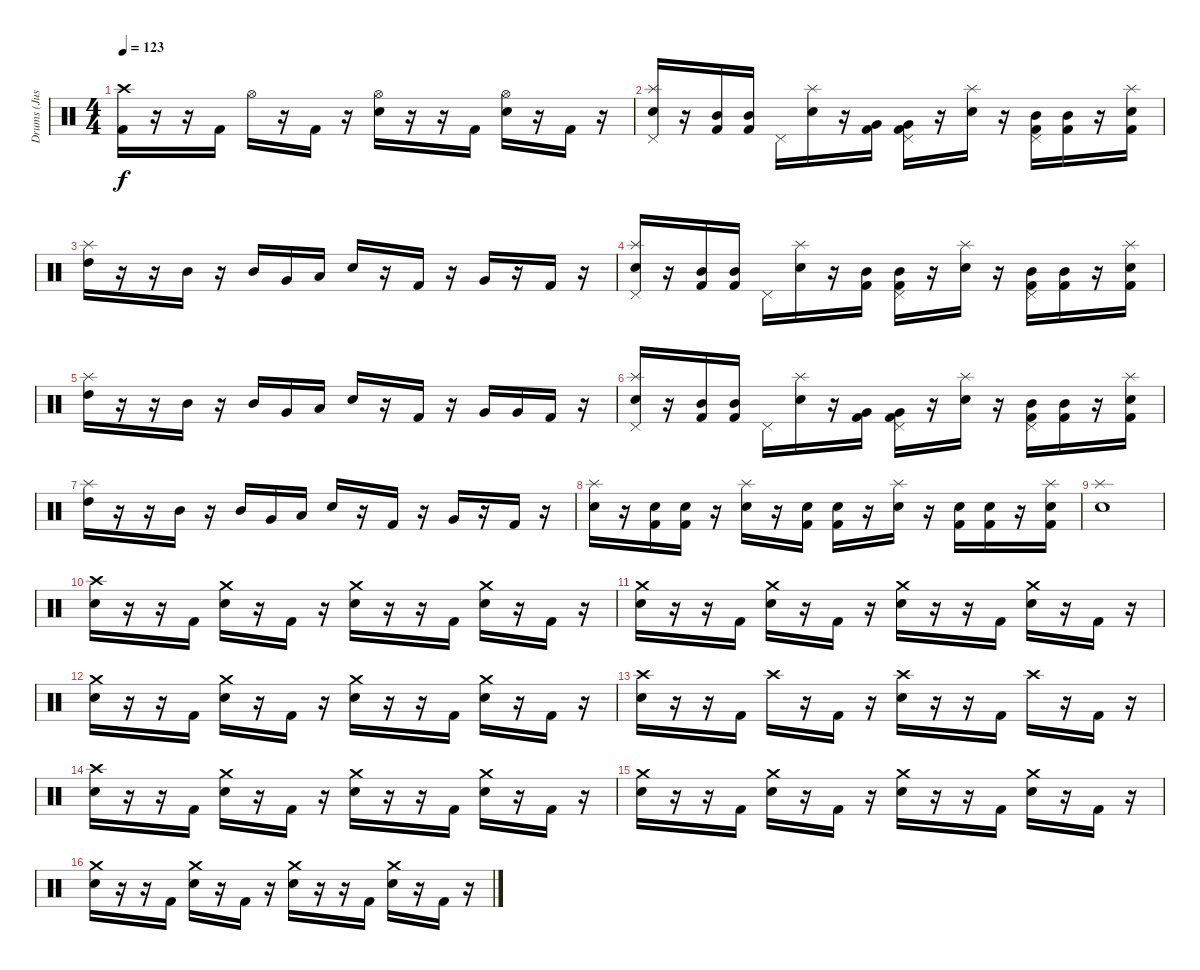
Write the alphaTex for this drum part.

\track ("Drums (Justin)" "Drums (Jus") {instrument percussion}
\staff {score}
\articulation defaults
\ts (4 4)
\tempo 123
\clef neutral
\ks c
("Crash high (hit)" "Kick (hit) 2").16{dy f} r.16 r.16 "Kick (hit) 2".16 "Hi-Hat (open)".16 r.16 "Kick (hit) 2".16 r.16 ("Electric Snare (hit)" "Hi-Hat (open)").16 r.16 r.16 "Kick (hit) 2".16 ("Electric Snare (hit)" "Hi-Hat (open)").16 r.16 "Kick (hit) 2".16 r.16 |
("Electric Snare (hit)" "Splash (hit)" "Pedal Hi-Hat (hit)").16 r.16 ("Mid Tom (hit)" "Kick (hit) 2").16 ("Mid Tom (hit)" "Kick (hit) 2").16 "Pedal Hi-Hat (hit)".16 ("Electric Snare (hit)" "Splash (hit)").16 r.16 ("Very Low Tom (hit)" "Kick (hit) 2").16 ("Very Low Tom (hit)" "Pedal Hi-Hat (hit)" "Kick (hit) 2").16 r.16 ("Electric Snare (hit)" "Splash (hit)").16 r.16 ("Mid Tom (hit)" "Pedal Hi-Hat (hit)" "Kick (hit) 2").16 ("Mid Tom (hit)" "Kick (hit) 2").16 r.16 ("Splash (hit)" "Electric Snare (hit)" "Kick (hit) 2").16 |
("High Tom (hit)" "Splash (hit)").16 r.16 r.16 "Mid Tom (hit)".16 r.16 "Mid Tom (hit)".16 "Very Low Tom (hit)".16 "Low Tom (hit)".16 "Electric Snare (hit)".16 r.16 "Kick (hit) 2".16 r.16 "Very Low Tom (hit)".16 r.16 "Kick (hit) 2".16 r.16 |
("Electric Snare (hit)" "Splash (hit)" "Pedal Hi-Hat (hit)").16 r.16 ("Mid Tom (hit)" "Kick (hit) 2").16 ("Mid Tom (hit)" "Kick (hit) 2").16 "Pedal Hi-Hat (hit)".16 ("Electric Snare (hit)" "Splash (hit)").16 r.16 ("Mid Tom (hit)" "Kick (hit) 2").16 ("Mid Tom (hit)" "Pedal Hi-Hat (hit)" "Kick (hit) 2").16 r.16 ("Electric Snare (hit)" "Splash (hit)").16 r.16 ("Mid Tom (hit)" "Pedal Hi-Hat (hit)" "Kick (hit) 2").16 ("Mid Tom (hit)" "Kick (hit) 2").16 r.16 ("Splash (hit)" "Electric Snare (hit)" "Kick (hit) 2").16 |
("High Tom (hit)" "Splash (hit)").16 r.16 r.16 "Mid Tom (hit)".16 r.16 "Mid Tom (hit)".16 "Very Low Tom (hit)".16 "Low Tom (hit)".16 "Electric Snare (hit)".16 r.16 "Kick (hit) 2".16 r.16 "Very Low Tom (hit)".16 "Very Low Tom (hit)".16 "Kick (hit) 2".16 r.16 |
("Electric Snare (hit)" "Splash (hit)" "Pedal Hi-Hat (hit)").16 r.16 ("Mid Tom (hit)" "Kick (hit) 2").16 ("Mid Tom (hit)" "Kick (hit) 2").16 "Pedal Hi-Hat (hit)".16 ("Electric Snare (hit)" "Splash (hit)").16 r.16 ("Very Low Tom (hit)" "Kick (hit) 2").16 ("Very Low Tom (hit)" "Pedal Hi-Hat (hit)" "Kick (hit) 2").16 r.16 ("Electric Snare (hit)" "Splash (hit)").16 r.16 ("Mid Tom (hit)" "Pedal Hi-Hat (hit)" "Kick (hit) 2").16 ("Mid Tom (hit)" "Kick (hit) 2").16 r.16 ("Splash (hit)" "Electric Snare (hit)" "Kick (hit) 2").16 |
("High Tom (hit)" "Splash (hit)").16 r.16 r.16 "Mid Tom (hit)".16 r.16 "Mid Tom (hit)".16 "Very Low Tom (hit)".16 "Low Tom (hit)".16 "Electric Snare (hit)".16 r.16 "Kick (hit) 2".16 r.16 "Very Low Tom (hit)".16 r.16 "Kick (hit) 2".16 r.16 |
("Electric Snare (hit)" "Splash (hit)").16 r.16 ("Electric Snare (hit)" "Kick (hit) 2").16 ("Electric Snare (hit)" "Kick (hit) 2").16 r.16 ("Electric Snare (hit)" "Splash (hit)").16 r.16 ("Electric Snare (hit)" "Kick (hit) 2").16 ("Electric Snare (hit)" "Kick (hit) 2").16 r.16 ("Electric Snare (hit)" "Splash (hit)").16 r.16 ("Electric Snare (hit)" "Kick (hit) 2").16 ("Electric Snare (hit)" "Kick (hit) 2").16 r.16 ("Splash (hit)" "Electric Snare (hit)" "Kick (hit) 2").16 |
("Splash (hit)" "Electric Snare (hit)").1 |
("Electric Snare (hit)" "Crash high (hit)").16 r.16 r.16 "Kick (hit) 2".16 ("Electric Snare (hit)" "Crash medium (hit)").16 r.16 "Kick (hit) 2".16 r.16 ("Electric Snare (hit)" "Crash medium (hit)").16 r.16 r.16 "Kick (hit) 2".16 ("Electric Snare (hit)" "Crash medium (hit)").16 r.16 "Kick (hit) 2".16 r.16 |
("Electric Snare (hit)" "Crash medium (hit)").16 r.16 r.16 "Kick (hit) 2".16 ("Electric Snare (hit)" "Crash medium (hit)").16 r.16 "Kick (hit) 2".16 r.16 ("Electric Snare (hit)" "Crash medium (hit)").16 r.16 r.16 "Kick (hit) 2".16 ("Electric Snare (hit)" "Crash medium (hit)").16 r.16 "Kick (hit) 2".16 r.16 |
("Electric Snare (hit)" "Crash medium (hit)").16 r.16 r.16 "Kick (hit) 2".16 ("Electric Snare (hit)" "Crash medium (hit)").16 r.16 "Kick (hit) 2".16 r.16 ("Electric Snare (hit)" "Crash medium (hit)").16 r.16 r.16 "Kick (hit) 2".16 ("Electric Snare (hit)" "Crash medium (hit)").16 r.16 "Kick (hit) 2".16 r.16 |
("Electric Snare (hit)" "Crash high (hit)").16 r.16 r.16 "Kick (hit) 2".16 "Crash high (hit)".16 r.16 "Kick (hit) 2".16 r.16 ("Electric Snare (hit)" "Crash high (hit)").16 r.16 r.16 "Kick (hit) 2".16 "Crash high (hit)".16 r.16 "Kick (hit) 2".16 r.16 |
("Electric Snare (hit)" "Crash high (hit)").16 r.16 r.16 "Kick (hit) 2".16 ("Electric Snare (hit)" "Crash medium (hit)").16 r.16 "Kick (hit) 2".16 r.16 ("Electric Snare (hit)" "Crash medium (hit)").16 r.16 r.16 "Kick (hit) 2".16 ("Electric Snare (hit)" "Crash medium (hit)").16 r.16 "Kick (hit) 2".16 r.16 |
("Electric Snare (hit)" "Crash medium (hit)").16 r.16 r.16 "Kick (hit) 2".16 ("Electric Snare (hit)" "Crash medium (hit)").16 r.16 "Kick (hit) 2".16 r.16 ("Electric Snare (hit)" "Crash medium (hit)").16 r.16 r.16 "Kick (hit) 2".16 ("Electric Snare (hit)" "Crash medium (hit)").16 r.16 "Kick (hit) 2".16 r.16 |
("Electric Snare (hit)" "Crash medium (hit)").16 r.16 r.16 "Kick (hit) 2".16 ("Electric Snare (hit)" "Crash medium (hit)").16 r.16 "Kick (hit) 2".16 r.16 ("Electric Snare (hit)" "Crash medium (hit)").16 r.16 r.16 "Kick (hit) 2".16 ("Electric Snare (hit)" "Crash medium (hit)").16 r.16 "Kick (hit) 2".16 r.16
